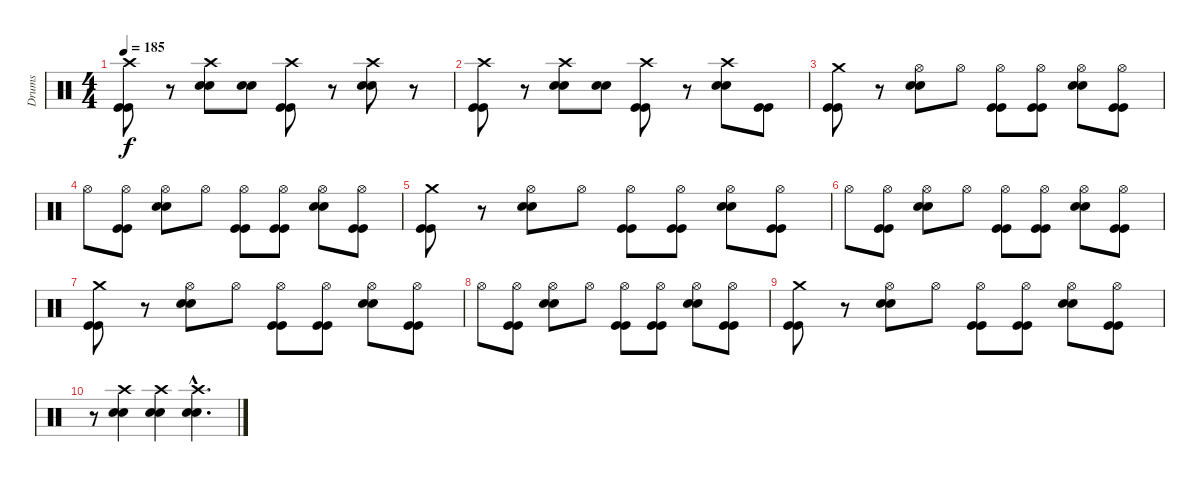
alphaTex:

\track ("Drums" "Drums") {instrument percussion}
\staff {score}
\articulation defaults
\ts (4 4)
\tempo 185
\clef neutral
\ks c
("Crash high (hit)" "Kick (hit)" "Kick (hit)").8{dy f} r.8 ("Crash high (hit)" "Electric Snare (hit)" "Electric Snare (hit)").8 ("Electric Snare (hit)" "Electric Snare (hit)").8 ("Crash high (hit)" "Kick (hit)" "Kick (hit)").8 r.8 ("Crash high (hit)" "Electric Snare (hit)" "Electric Snare (hit)").8 r.8 |
("Crash high (hit)" "Kick (hit)" "Kick (hit)").8 r.8 ("Crash high (hit)" "Electric Snare (hit)" "Electric Snare (hit)").8 ("Electric Snare (hit)" "Electric Snare (hit)").8 ("Crash high (hit)" "Kick (hit)" "Kick (hit)").8 r.8 ("Crash high (hit)" "Electric Snare (hit)" "Electric Snare (hit)").8 ("Kick (hit)" "Kick (hit)").8 |
("Crash medium (hit)" "Kick (hit)" "Kick (hit)").8 r.8 ("Hi-Hat (open)" "Electric Snare (hit)" "Electric Snare (hit)").8 "Hi-Hat (open)".8 ("Hi-Hat (open)" "Kick (hit)" "Kick (hit)").8 ("Hi-Hat (open)" "Kick (hit)" "Kick (hit)").8 ("Hi-Hat (open)" "Electric Snare (hit)" "Electric Snare (hit)").8 ("Hi-Hat (open)" "Kick (hit)" "Kick (hit)").8 |
"Hi-Hat (open)".8 ("Hi-Hat (open)" "Kick (hit)" "Kick (hit)").8 ("Hi-Hat (open)" "Electric Snare (hit)" "Electric Snare (hit)").8 "Hi-Hat (open)".8 ("Hi-Hat (open)" "Kick (hit)" "Kick (hit)").8 ("Hi-Hat (open)" "Kick (hit)" "Kick (hit)").8 ("Hi-Hat (open)" "Electric Snare (hit)" "Electric Snare (hit)").8 ("Hi-Hat (open)" "Kick (hit)" "Kick (hit)").8 |
("Crash medium (hit)" "Kick (hit)" "Kick (hit)").8 r.8 ("Hi-Hat (open)" "Electric Snare (hit)" "Electric Snare (hit)").8 "Hi-Hat (open)".8 ("Hi-Hat (open)" "Kick (hit)" "Kick (hit)").8 ("Hi-Hat (open)" "Kick (hit)" "Kick (hit)").8 ("Hi-Hat (open)" "Electric Snare (hit)" "Electric Snare (hit)").8 ("Hi-Hat (open)" "Kick (hit)" "Kick (hit)").8 |
"Hi-Hat (open)".8 ("Hi-Hat (open)" "Kick (hit)" "Kick (hit)").8 ("Hi-Hat (open)" "Electric Snare (hit)" "Electric Snare (hit)").8 "Hi-Hat (open)".8 ("Hi-Hat (open)" "Kick (hit)" "Kick (hit)").8 ("Hi-Hat (open)" "Kick (hit)" "Kick (hit)").8 ("Hi-Hat (open)" "Electric Snare (hit)" "Electric Snare (hit)").8 ("Hi-Hat (open)" "Kick (hit)" "Kick (hit)").8 |
("Crash medium (hit)" "Kick (hit)" "Kick (hit)").8 r.8 ("Hi-Hat (open)" "Electric Snare (hit)" "Electric Snare (hit)").8 "Hi-Hat (open)".8 ("Hi-Hat (open)" "Kick (hit)" "Kick (hit)").8 ("Hi-Hat (open)" "Kick (hit)" "Kick (hit)").8 ("Hi-Hat (open)" "Electric Snare (hit)" "Electric Snare (hit)").8 ("Hi-Hat (open)" "Kick (hit)" "Kick (hit)").8 |
"Hi-Hat (open)".8 ("Hi-Hat (open)" "Kick (hit)" "Kick (hit)").8 ("Hi-Hat (open)" "Electric Snare (hit)" "Electric Snare (hit)").8 "Hi-Hat (open)".8 ("Hi-Hat (open)" "Kick (hit)" "Kick (hit)").8 ("Hi-Hat (open)" "Kick (hit)" "Kick (hit)").8 ("Hi-Hat (open)" "Electric Snare (hit)" "Electric Snare (hit)").8 ("Hi-Hat (open)" "Kick (hit)" "Kick (hit)").8 |
("Crash medium (hit)" "Kick (hit)" "Kick (hit)").8 r.8 ("Hi-Hat (open)" "Electric Snare (hit)" "Electric Snare (hit)").8 "Hi-Hat (open)".8 ("Hi-Hat (open)" "Kick (hit)" "Kick (hit)").8 ("Hi-Hat (open)" "Kick (hit)" "Kick (hit)").8 ("Hi-Hat (open)" "Electric Snare (hit)" "Electric Snare (hit)").8 ("Hi-Hat (open)" "Kick (hit)" "Kick (hit)").8 |
r.8 ("Crash high (hit)" "Electric Snare (hit)" "Electric Snare (hit)").4 ("Crash high (hit)" "Electric Snare (hit)" "Electric Snare (hit)").4 ("Crash high (hit)"{hac} "Electric Snare (hit)"{hac} "Electric Snare (hit)"{hac}).4{d}
